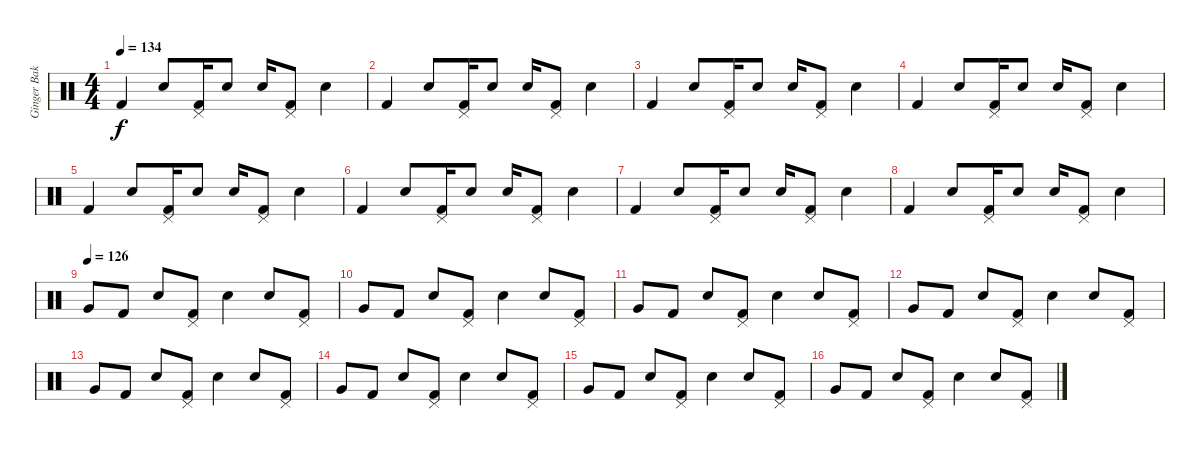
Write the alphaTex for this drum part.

\track ("Ginger Baker" "Ginger Bak") {instrument percussion}
\staff {score}
\articulation defaults
\ts (4 4)
\tempo 134
\clef neutral
\ks c "Kick (hit) 2".4{dy f} "Snare (hit) 2".8
("Pedal Hi-Hat (hit)" "Kick (hit) 2").16 "Snare (hit) 2".8 "Snare (hit) 2".16 ("Pedal Hi-Hat (hit)" "Kick (hit) 2").8 "Snare (hit) 2".4 |
"Kick (hit) 2".4 "Snare (hit) 2".8 ("Pedal Hi-Hat (hit)" "Kick (hit) 2").16 "Snare (hit) 2".8 "Snare (hit) 2".16 ("Pedal Hi-Hat (hit)" "Kick (hit) 2").8 "Snare (hit) 2".4 |
"Kick (hit) 2".4 "Snare (hit) 2".8 ("Pedal Hi-Hat (hit)" "Kick (hit) 2").16 "Snare (hit) 2".8 "Snare (hit) 2".16 ("Pedal Hi-Hat (hit)" "Kick (hit) 2").8 "Snare (hit) 2".4 |
"Kick (hit) 2".4 "Snare (hit) 2".8 ("Pedal Hi-Hat (hit)" "Kick (hit) 2").16 "Snare (hit) 2".8 "Snare (hit) 2".16 ("Pedal Hi-Hat (hit)" "Kick (hit) 2").8 "Snare (hit) 2".4 |
"Kick (hit) 2".4 "Snare (hit) 2".8 ("Pedal Hi-Hat (hit)" "Kick (hit) 2").16 "Snare (hit) 2".8 "Snare (hit) 2".16 ("Pedal Hi-Hat (hit)" "Kick (hit) 2").8 "Snare (hit) 2".4 |
"Kick (hit) 2".4 "Snare (hit) 2".8 ("Pedal Hi-Hat (hit)" "Kick (hit) 2").16 "Snare (hit) 2".8 "Snare (hit) 2".16 ("Pedal Hi-Hat (hit)" "Kick (hit) 2").8 "Snare (hit) 2".4 |
"Kick (hit) 2".4 "Snare (hit) 2".8 ("Pedal Hi-Hat (hit)" "Kick (hit) 2").16 "Snare (hit) 2".8 "Snare (hit) 2".16 ("Pedal Hi-Hat (hit)" "Kick (hit) 2").8 "Snare (hit) 2".4 |
"Kick (hit) 2".4 "Snare (hit) 2".8 ("Pedal Hi-Hat (hit)" "Kick (hit) 2").16 "Snare (hit) 2".8 "Snare (hit) 2".16 ("Pedal Hi-Hat (hit)" "Kick (hit) 2").8 "Snare (hit) 2".4 |
\tempo (126)
"Very Low Tom (hit)".8 "Kick (hit) 2".8 "Snare (hit) 2".8 ("Pedal Hi-Hat (hit)" "Kick (hit) 2").8 "Snare (hit) 2".4 "Snare (hit) 2".8 ("Pedal Hi-Hat (hit)" "Kick (hit) 2").8 |
"Very Low Tom (hit)".8 "Kick (hit) 2".8 "Snare (hit) 2".8 ("Pedal Hi-Hat (hit)" "Kick (hit) 2").8 "Snare (hit) 2".4 "Snare (hit) 2".8 ("Pedal Hi-Hat (hit)" "Kick (hit) 2").8 |
"Very Low Tom (hit)".8 "Kick (hit) 2".8 "Snare (hit) 2".8 ("Pedal Hi-Hat (hit)" "Kick (hit) 2").8 "Snare (hit) 2".4 "Snare (hit) 2".8 ("Pedal Hi-Hat (hit)" "Kick (hit) 2").8 |
"Very Low Tom (hit)".8 "Kick (hit) 2".8 "Snare (hit) 2".8 ("Pedal Hi-Hat (hit)" "Kick (hit) 2").8 "Snare (hit) 2".4 "Snare (hit) 2".8 ("Pedal Hi-Hat (hit)" "Kick (hit) 2").8 |
"Very Low Tom (hit)".8 "Kick (hit) 2".8 "Snare (hit) 2".8 ("Pedal Hi-Hat (hit)" "Kick (hit) 2").8 "Snare (hit) 2".4 "Snare (hit) 2".8 ("Pedal Hi-Hat (hit)" "Kick (hit) 2").8 |
"Very Low Tom (hit)".8 "Kick (hit) 2".8 "Snare (hit) 2".8 ("Pedal Hi-Hat (hit)" "Kick (hit) 2").8 "Snare (hit) 2".4 "Snare (hit) 2".8 ("Pedal Hi-Hat (hit)" "Kick (hit) 2").8 |
"Very Low Tom (hit)".8 "Kick (hit) 2".8 "Snare (hit) 2".8 ("Pedal Hi-Hat (hit)" "Kick (hit) 2").8 "Snare (hit) 2".4 "Snare (hit) 2".8 ("Pedal Hi-Hat (hit)" "Kick (hit) 2").8 |
"Very Low Tom (hit)".8 "Kick (hit) 2".8 "Snare (hit) 2".8 ("Pedal Hi-Hat (hit)" "Kick (hit) 2").8 "Snare (hit) 2".4 "Snare (hit) 2".8 ("Pedal Hi-Hat (hit)" "Kick (hit) 2").8
